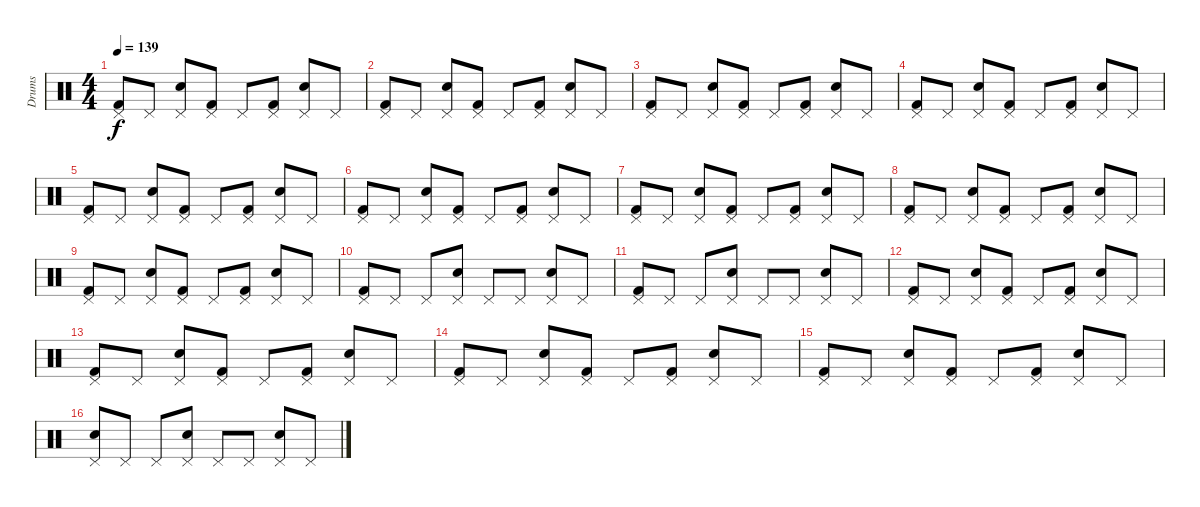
\track ("Drums" "Drums") {instrument percussion}
\staff {score}
\articulation defaults
\ts (4 4)
\tempo 139
\clef neutral
\ks c
("Pedal Hi-Hat (hit)" "Kick (hit) 2").8{dy f} "Pedal Hi-Hat (hit)".8 ("Pedal Hi-Hat (hit)" "Snare (hit) 2").8 ("Pedal Hi-Hat (hit)" "Kick (hit) 2").8 "Pedal Hi-Hat (hit)".8 ("Pedal Hi-Hat (hit)" "Kick (hit) 2").8 ("Pedal Hi-Hat (hit)" "Snare (hit) 2").8 "Pedal Hi-Hat (hit)".8 |
("Pedal Hi-Hat (hit)" "Kick (hit) 2").8 "Pedal Hi-Hat (hit)".8 ("Pedal Hi-Hat (hit)" "Snare (hit) 2").8 ("Pedal Hi-Hat (hit)" "Kick (hit) 2").8 "Pedal Hi-Hat (hit)".8 ("Pedal Hi-Hat (hit)" "Kick (hit) 2").8 ("Pedal Hi-Hat (hit)" "Snare (hit) 2").8 "Pedal Hi-Hat (hit)".8 |
("Pedal Hi-Hat (hit)" "Kick (hit) 2").8 "Pedal Hi-Hat (hit)".8 ("Pedal Hi-Hat (hit)" "Snare (hit) 2").8 ("Pedal Hi-Hat (hit)" "Kick (hit) 2").8 "Pedal Hi-Hat (hit)".8 ("Pedal Hi-Hat (hit)" "Kick (hit) 2").8 ("Pedal Hi-Hat (hit)" "Snare (hit) 2").8 "Pedal Hi-Hat (hit)".8 |
("Pedal Hi-Hat (hit)" "Kick (hit) 2").8 "Pedal Hi-Hat (hit)".8 ("Pedal Hi-Hat (hit)" "Snare (hit) 2").8 ("Pedal Hi-Hat (hit)" "Kick (hit) 2").8 "Pedal Hi-Hat (hit)".8 ("Pedal Hi-Hat (hit)" "Kick (hit) 2").8 ("Pedal Hi-Hat (hit)" "Snare (hit) 2").8 "Pedal Hi-Hat (hit)".8 |
("Pedal Hi-Hat (hit)" "Kick (hit) 2").8 "Pedal Hi-Hat (hit)".8 ("Pedal Hi-Hat (hit)" "Snare (hit) 2").8 ("Pedal Hi-Hat (hit)" "Kick (hit) 2").8 "Pedal Hi-Hat (hit)".8 ("Pedal Hi-Hat (hit)" "Kick (hit) 2").8 ("Pedal Hi-Hat (hit)" "Snare (hit) 2").8 "Pedal Hi-Hat (hit)".8 |
("Pedal Hi-Hat (hit)" "Kick (hit) 2").8 "Pedal Hi-Hat (hit)".8 ("Pedal Hi-Hat (hit)" "Snare (hit) 2").8 ("Pedal Hi-Hat (hit)" "Kick (hit) 2").8 "Pedal Hi-Hat (hit)".8 ("Pedal Hi-Hat (hit)" "Kick (hit) 2").8 ("Pedal Hi-Hat (hit)" "Snare (hit) 2").8 "Pedal Hi-Hat (hit)".8 |
("Pedal Hi-Hat (hit)" "Kick (hit) 2").8 "Pedal Hi-Hat (hit)".8 ("Pedal Hi-Hat (hit)" "Snare (hit) 2").8 ("Pedal Hi-Hat (hit)" "Kick (hit) 2").8 "Pedal Hi-Hat (hit)".8 ("Pedal Hi-Hat (hit)" "Kick (hit) 2").8 ("Pedal Hi-Hat (hit)" "Snare (hit) 2").8 "Pedal Hi-Hat (hit)".8 |
("Pedal Hi-Hat (hit)" "Kick (hit) 2").8 "Pedal Hi-Hat (hit)".8 ("Pedal Hi-Hat (hit)" "Snare (hit) 2").8 ("Pedal Hi-Hat (hit)" "Kick (hit) 2").8 "Pedal Hi-Hat (hit)".8 ("Pedal Hi-Hat (hit)" "Kick (hit) 2").8 ("Pedal Hi-Hat (hit)" "Snare (hit) 2").8 "Pedal Hi-Hat (hit)".8 |
("Pedal Hi-Hat (hit)" "Kick (hit) 2").8 "Pedal Hi-Hat (hit)".8 ("Pedal Hi-Hat (hit)" "Snare (hit) 2").8 ("Pedal Hi-Hat (hit)" "Kick (hit) 2").8 "Pedal Hi-Hat (hit)".8 ("Pedal Hi-Hat (hit)" "Kick (hit) 2").8 ("Pedal Hi-Hat (hit)" "Snare (hit) 2").8 "Pedal Hi-Hat (hit)".8 |
("Pedal Hi-Hat (hit)" "Kick (hit) 2").8 "Pedal Hi-Hat (hit)".8 "Pedal Hi-Hat (hit)".8 ("Pedal Hi-Hat (hit)" "Snare (hit) 2").8 "Pedal Hi-Hat (hit)".8 "Pedal Hi-Hat (hit)".8 ("Pedal Hi-Hat (hit)" "Snare (hit) 2").8 "Pedal Hi-Hat (hit)".8 |
("Pedal Hi-Hat (hit)" "Kick (hit) 2").8 "Pedal Hi-Hat (hit)".8 "Pedal Hi-Hat (hit)".8 ("Pedal Hi-Hat (hit)" "Snare (hit) 2").8 "Pedal Hi-Hat (hit)".8 "Pedal Hi-Hat (hit)".8 ("Pedal Hi-Hat (hit)" "Snare (hit) 2").8 "Pedal Hi-Hat (hit)".8 |
("Pedal Hi-Hat (hit)" "Kick (hit) 2").8 "Pedal Hi-Hat (hit)".8 ("Pedal Hi-Hat (hit)" "Snare (hit) 2").8 ("Pedal Hi-Hat (hit)" "Kick (hit) 2").8 "Pedal Hi-Hat (hit)".8 ("Pedal Hi-Hat (hit)" "Kick (hit) 2").8 ("Pedal Hi-Hat (hit)" "Snare (hit) 2").8 "Pedal Hi-Hat (hit)".8 |
("Pedal Hi-Hat (hit)" "Kick (hit) 2").8 "Pedal Hi-Hat (hit)".8 ("Pedal Hi-Hat (hit)" "Snare (hit) 2").8 ("Pedal Hi-Hat (hit)" "Kick (hit) 2").8 "Pedal Hi-Hat (hit)".8 ("Pedal Hi-Hat (hit)" "Kick (hit) 2").8 ("Pedal Hi-Hat (hit)" "Snare (hit) 2").8 "Pedal Hi-Hat (hit)".8 |
("Pedal Hi-Hat (hit)" "Kick (hit) 2").8 "Pedal Hi-Hat (hit)".8 ("Pedal Hi-Hat (hit)" "Snare (hit) 2").8 ("Pedal Hi-Hat (hit)" "Kick (hit) 2").8 "Pedal Hi-Hat (hit)".8 ("Pedal Hi-Hat (hit)" "Kick (hit) 2").8 ("Pedal Hi-Hat (hit)" "Snare (hit) 2").8 "Pedal Hi-Hat (hit)".8 |
("Pedal Hi-Hat (hit)" "Kick (hit) 2").8 "Pedal Hi-Hat (hit)".8 ("Pedal Hi-Hat (hit)" "Snare (hit) 2").8 ("Pedal Hi-Hat (hit)" "Kick (hit) 2").8 "Pedal Hi-Hat (hit)".8 ("Pedal Hi-Hat (hit)" "Kick (hit) 2").8 ("Pedal Hi-Hat (hit)" "Snare (hit) 2").8 "Pedal Hi-Hat (hit)".8 |
("Pedal Hi-Hat (hit)" "Snare (hit) 2").8 "Pedal Hi-Hat (hit)".8 "Pedal Hi-Hat (hit)".8 ("Pedal Hi-Hat (hit)" "Snare (hit) 2").8 "Pedal Hi-Hat (hit)".8 "Pedal Hi-Hat (hit)".8 ("Pedal Hi-Hat (hit)" "Snare (hit) 2").8 "Pedal Hi-Hat (hit)".8
